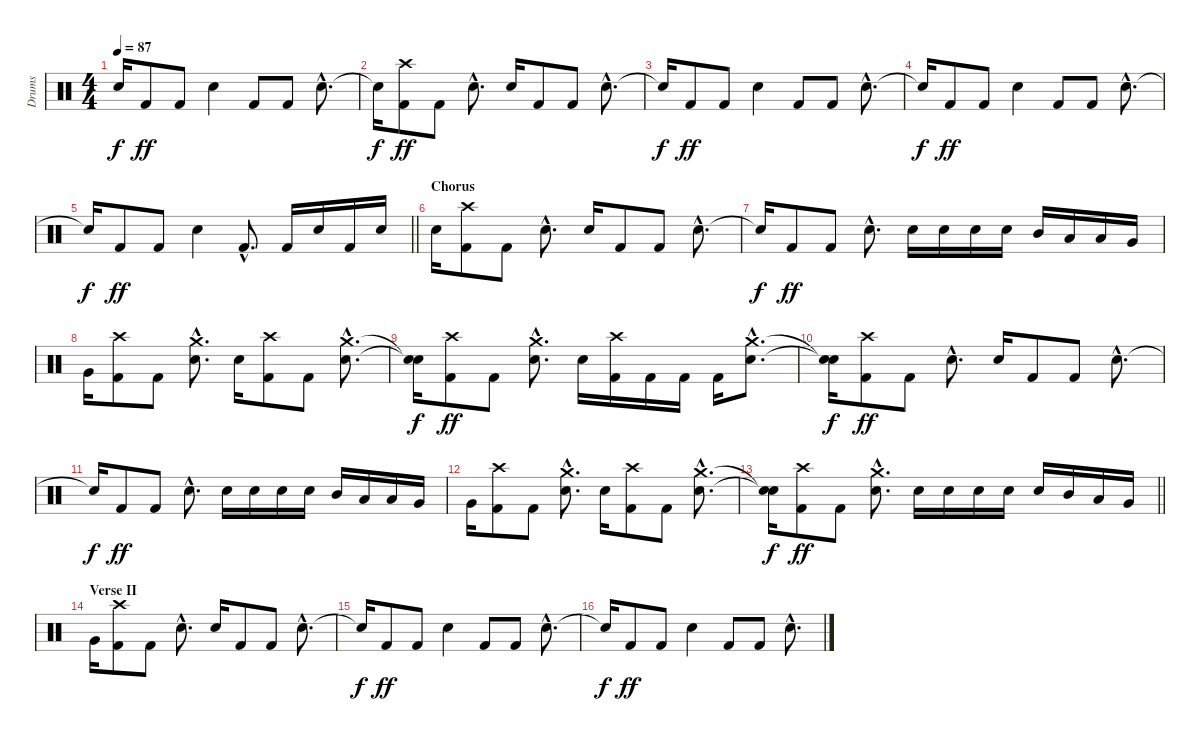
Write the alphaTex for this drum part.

\track ("Drums" "Drums") {instrument percussion}
\staff {score}
\articulation defaults
\ts (4 4)
\tempo 87
\clef neutral
\ks c "Snare (hit)"{t}.16{dy f} "Kick (hit) 2".8{dy ff} "Kick (hit) 2".8 "Electric Snare (hit)".4 "Kick (hit) 2".8 "Kick (hit) 2".8 "Electric Snare (hit)"{hac}.8{d}
|
"Snare (hit)"{t}.16{dy f} ("Kick (hit) 2" "Crash high (hit)").8{dy ff} "Kick (hit) 2".8 "Electric Snare (hit)"{hac}.8{d} "Electric Snare (hit)".16 "Kick (hit) 2".8 "Kick (hit) 2".8 "Electric Snare (hit)"{hac}.8{d} |
"Snare (hit)"{t}.16{dy f} "Kick (hit) 2".8{dy ff} "Kick (hit) 2".8 "Electric Snare (hit)".4 "Kick (hit) 2".8 "Kick (hit) 2".8 "Electric Snare (hit)"{hac}.8{d} |
"Snare (hit)"{t}.16{dy f} "Kick (hit) 2".8{dy ff} "Kick (hit) 2".8 "Electric Snare (hit)".4 "Kick (hit) 2".8 "Kick (hit) 2".8 "Electric Snare (hit)"{hac}.8{d} |
\barLineRight lightlight "Snare (hit)"{t}.16{dy f} "Kick (hit) 2".8{dy ff} "Kick (hit) 2".8 "Electric Snare (hit)".4 "Kick (hit) 2"{hac}.8{d} "Kick (hit) 2".16 "Electric Snare (hit)".16 "Kick (hit) 2".16 "Electric Snare (hit)".16
|
\section ("" "Chorus")
"Electric Snare (hit)".16 ("Kick (hit) 2" "Crash high (hit)").8 "Kick (hit) 2".8 "Electric Snare (hit)"{hac}.8{d} "Electric Snare (hit)".16 "Kick (hit) 2".8 "Kick (hit) 2".8 "Electric Snare (hit)"{hac}.8{d} |
"Snare (hit)"{t}.16{dy f} "Kick (hit) 2".8{dy ff} "Kick (hit) 2".8 "Electric Snare (hit)"{hac}.8{d} "Electric Snare (hit)".16 "Electric Snare (hit)".16 "Electric Snare (hit)".16 "Electric Snare (hit)".16 "Mid Tom (hit)".16 "Low Tom (hit)".16 "Low Tom (hit)".16 "Very Low Tom (hit)".16 |
"Very Low Tom (hit)".16 ("Kick (hit) 2" "Crash high (hit)").8 "Kick (hit) 2".8 ("Electric Snare (hit)"{hac} "Crash medium (hit)"{hac}).8{d} "Electric Snare (hit)".16 ("Kick (hit) 2" "Crash high (hit)").8 "Kick (hit) 2".8 ("Electric Snare (hit)"{hac} "Crash medium (hit)"{hac}).8{d} |
("Snare (hit)"{t} "Snare (hit)"{t}).16{dy f} ("Kick (hit) 2" "Crash high (hit)").8{dy ff} "Kick (hit) 2".8 ("Electric Snare (hit)"{hac} "Crash medium (hit)"{hac}).8{d} "Electric Snare (hit)".16 ("Kick (hit) 2" "Crash high (hit)").16 "Kick (hit) 2".16 "Kick (hit) 2".16 "Kick (hit) 2".16 ("Electric Snare (hit)"{hac} "Crash medium (hit)"{hac}).8{d} |
("Snare (hit)"{t} "Snare (hit)"{t}).16{dy f} ("Kick (hit) 2" "Crash high (hit)").8{dy ff} "Kick (hit) 2".8 "Electric Snare (hit)"{hac}.8{d} "Electric Snare (hit)".16 "Kick (hit) 2".8 "Kick (hit) 2".8 "Electric Snare (hit)"{hac}.8{d} |
"Snare (hit)"{t}.16{dy f} "Kick (hit) 2".8{dy ff} "Kick (hit) 2".8 "Electric Snare (hit)"{hac}.8{d} "Electric Snare (hit)".16 "Electric Snare (hit)".16 "Electric Snare (hit)".16 "Electric Snare (hit)".16 "Mid Tom (hit)".16 "Low Tom (hit)".16 "Low Tom (hit)".16 "Very Low Tom (hit)".16 |
"Very Low Tom (hit)".16 ("Kick (hit) 2" "Crash high (hit)").8 "Kick (hit) 2".8 ("Electric Snare (hit)"{hac} "Crash medium (hit)"{hac}).8{d} "Electric Snare (hit)".16 ("Kick (hit) 2" "Crash high (hit)").8 "Kick (hit) 2".8 ("Electric Snare (hit)"{hac} "Crash medium (hit)"{hac}).8{d} |
\barLineRight lightlight
("Snare (hit)"{t} "Snare (hit)"{t}).16{dy f} ("Kick (hit) 2" "Crash high (hit)").8{dy ff} "Kick (hit) 2".8 ("Electric Snare (hit)"{hac} "Crash medium (hit)"{hac}).8{d} "Electric Snare (hit)".16 "Electric Snare (hit)".16 "Electric Snare (hit)".16 "Electric Snare (hit)".16 "Electric Snare (hit)".16 "Mid Tom (hit)".16 "Low Tom (hit)".16 "Very Low Tom (hit)".16 |
\section ("" "Verse II")
"Very Low Tom (hit)".16 ("Kick (hit) 2" "Crash high (hit)").8 "Kick (hit) 2".8 "Electric Snare (hit)"{hac}.8{d} "Electric Snare (hit)".16 "Kick (hit) 2".8 "Kick (hit) 2".8 "Electric Snare (hit)"{hac}.8{d} |
"Snare (hit)"{t}.16{dy f} "Kick (hit) 2".8{dy ff} "Kick (hit) 2".8 "Electric Snare (hit)".4 "Kick (hit) 2".8 "Kick (hit) 2".8 "Electric Snare (hit)"{hac}.8{d} |
"Snare (hit)"{t}.16{dy f} "Kick (hit) 2".8{dy ff} "Kick (hit) 2".8 "Electric Snare (hit)".4 "Kick (hit) 2".8 "Kick (hit) 2".8 "Electric Snare (hit)"{hac}.8{d}
